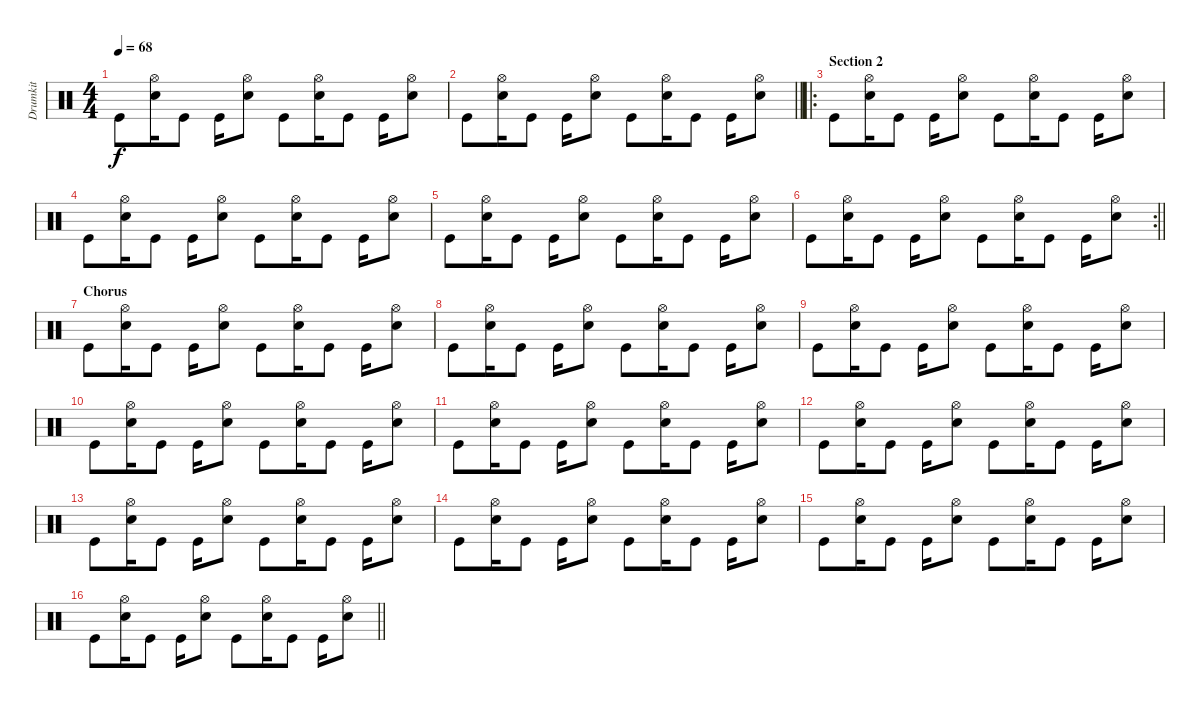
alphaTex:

\track ("Drumkit" "Drumkit") {instrument percussion}
\staff {score}
\articulation defaults
\ts (4 4)
\tempo 68
\clef neutral
\ks c "Kick (hit)".8{dy f}
("Snare (hit) 2" "Hi-Hat (open)").16 "Kick (hit)".8 "Kick (hit)".16 ("Hi-Hat (open)" "Snare (hit) 2").8 "Kick (hit)".8 ("Snare (hit) 2" "Hi-Hat (open)").16 "Kick (hit)".8 "Kick (hit)".16 ("Snare (hit) 2" "Hi-Hat (open)").8 |
\barLineRight lightlight "Kick (hit)".8
("Snare (hit) 2" "Hi-Hat (open)").16 "Kick (hit)".8 "Kick (hit)".16 ("Hi-Hat (open)" "Snare (hit) 2").8 "Kick (hit)".8 ("Snare (hit) 2" "Hi-Hat (open)").16 "Kick (hit)".8 "Kick (hit)".16 ("Snare (hit) 2" "Hi-Hat (open)").8 |
\ro
\section ("" "Section 2")
"Kick (hit)".8 ("Snare (hit) 2" "Hi-Hat (open)").16 "Kick (hit)".8 "Kick (hit)".16 ("Hi-Hat (open)" "Snare (hit) 2").8 "Kick (hit)".8 ("Snare (hit) 2" "Hi-Hat (open)").16 "Kick (hit)".8 "Kick (hit)".16 ("Snare (hit) 2" "Hi-Hat (open)").8 |
"Kick (hit)".8 ("Snare (hit) 2" "Hi-Hat (open)").16 "Kick (hit)".8 "Kick (hit)".16 ("Hi-Hat (open)" "Snare (hit) 2").8 "Kick (hit)".8 ("Snare (hit) 2" "Hi-Hat (open)").16 "Kick (hit)".8 "Kick (hit)".16 ("Snare (hit) 2" "Hi-Hat (open)").8 |
"Kick (hit)".8 ("Snare (hit) 2" "Hi-Hat (open)").16 "Kick (hit)".8 "Kick (hit)".16 ("Hi-Hat (open)" "Snare (hit) 2").8 "Kick (hit)".8 ("Snare (hit) 2" "Hi-Hat (open)").16 "Kick (hit)".8 "Kick (hit)".16 ("Snare (hit) 2" "Hi-Hat (open)").8 |
\rc 2
\barLineRight lightlight "Kick (hit)".8
("Snare (hit) 2" "Hi-Hat (open)").16 "Kick (hit)".8 "Kick (hit)".16 ("Hi-Hat (open)" "Snare (hit) 2").8 "Kick (hit)".8 ("Snare (hit) 2" "Hi-Hat (open)").16 "Kick (hit)".8 "Kick (hit)".16 ("Snare (hit) 2" "Hi-Hat (open)").8 |
\section ("" "Chorus")
"Kick (hit)".8 ("Snare (hit) 2" "Hi-Hat (open)").16 "Kick (hit)".8 "Kick (hit)".16 ("Hi-Hat (open)" "Snare (hit) 2").8 "Kick (hit)".8 ("Snare (hit) 2" "Hi-Hat (open)").16 "Kick (hit)".8 "Kick (hit)".16 ("Snare (hit) 2" "Hi-Hat (open)").8 |
"Kick (hit)".8 ("Snare (hit) 2" "Hi-Hat (open)").16 "Kick (hit)".8 "Kick (hit)".16 ("Hi-Hat (open)" "Snare (hit) 2").8 "Kick (hit)".8 ("Snare (hit) 2" "Hi-Hat (open)").16 "Kick (hit)".8 "Kick (hit)".16 ("Snare (hit) 2" "Hi-Hat (open)").8 |
"Kick (hit)".8 ("Snare (hit) 2" "Hi-Hat (open)").16 "Kick (hit)".8 "Kick (hit)".16 ("Hi-Hat (open)" "Snare (hit) 2").8 "Kick (hit)".8 ("Snare (hit) 2" "Hi-Hat (open)").16 "Kick (hit)".8 "Kick (hit)".16 ("Snare (hit) 2" "Hi-Hat (open)").8 |
"Kick (hit)".8 ("Snare (hit) 2" "Hi-Hat (open)").16 "Kick (hit)".8 "Kick (hit)".16 ("Hi-Hat (open)" "Snare (hit) 2").8 "Kick (hit)".8 ("Snare (hit) 2" "Hi-Hat (open)").16 "Kick (hit)".8 "Kick (hit)".16 ("Snare (hit) 2" "Hi-Hat (open)").8 |
"Kick (hit)".8 ("Snare (hit) 2" "Hi-Hat (open)").16 "Kick (hit)".8 "Kick (hit)".16 ("Hi-Hat (open)" "Snare (hit) 2").8 "Kick (hit)".8 ("Snare (hit) 2" "Hi-Hat (open)").16 "Kick (hit)".8 "Kick (hit)".16 ("Snare (hit) 2" "Hi-Hat (open)").8 |
"Kick (hit)".8 ("Snare (hit) 2" "Hi-Hat (open)").16 "Kick (hit)".8 "Kick (hit)".16 ("Hi-Hat (open)" "Snare (hit) 2").8 "Kick (hit)".8 ("Snare (hit) 2" "Hi-Hat (open)").16 "Kick (hit)".8 "Kick (hit)".16 ("Snare (hit) 2" "Hi-Hat (open)").8 |
"Kick (hit)".8 ("Snare (hit) 2" "Hi-Hat (open)").16 "Kick (hit)".8 "Kick (hit)".16 ("Hi-Hat (open)" "Snare (hit) 2").8 "Kick (hit)".8 ("Snare (hit) 2" "Hi-Hat (open)").16 "Kick (hit)".8 "Kick (hit)".16 ("Snare (hit) 2" "Hi-Hat (open)").8 |
"Kick (hit)".8 ("Snare (hit) 2" "Hi-Hat (open)").16 "Kick (hit)".8 "Kick (hit)".16 ("Hi-Hat (open)" "Snare (hit) 2").8 "Kick (hit)".8 ("Snare (hit) 2" "Hi-Hat (open)").16 "Kick (hit)".8 "Kick (hit)".16 ("Snare (hit) 2" "Hi-Hat (open)").8 |
"Kick (hit)".8 ("Snare (hit) 2" "Hi-Hat (open)").16 "Kick (hit)".8 "Kick (hit)".16 ("Hi-Hat (open)" "Snare (hit) 2").8 "Kick (hit)".8 ("Snare (hit) 2" "Hi-Hat (open)").16 "Kick (hit)".8 "Kick (hit)".16 ("Snare (hit) 2" "Hi-Hat (open)").8 |
\barLineRight lightlight "Kick (hit)".8
("Snare (hit) 2" "Hi-Hat (open)").16 "Kick (hit)".8 "Kick (hit)".16 ("Hi-Hat (open)" "Snare (hit) 2").8 "Kick (hit)".8 ("Snare (hit) 2" "Hi-Hat (open)").16 "Kick (hit)".8 "Kick (hit)".16 ("Snare (hit) 2" "Hi-Hat (open)").8
